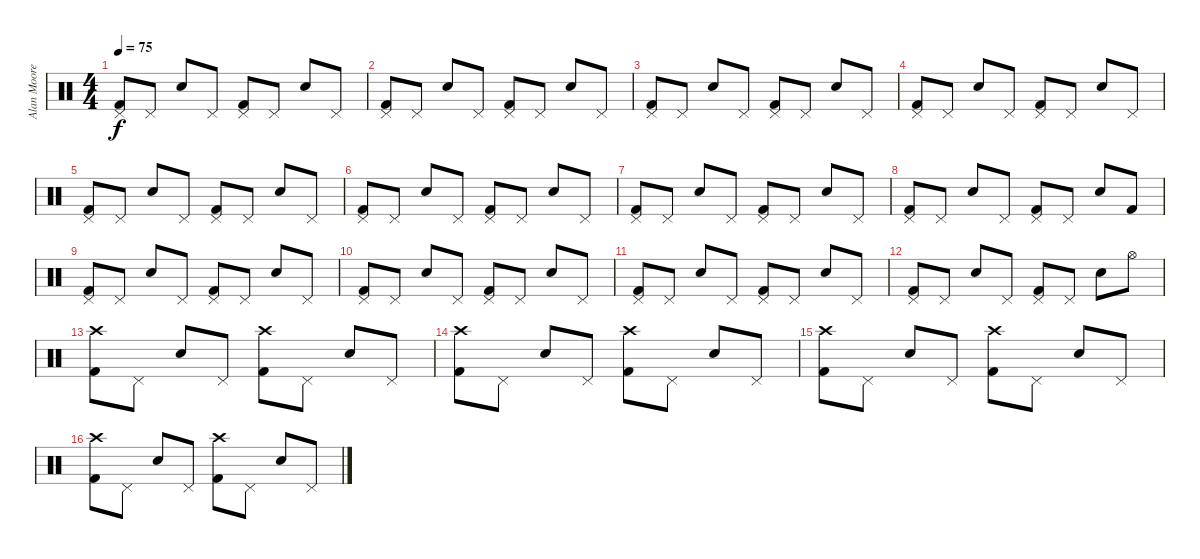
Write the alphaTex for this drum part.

\track ("Alan Moore" "Alan Moore") {instrument percussion}
\staff {score}
\articulation defaults
\ts (4 4)
\tempo 75
\clef neutral
\ks c
("Pedal Hi-Hat (hit)" "Kick (hit) 2").8{dy f} "Pedal Hi-Hat (hit)".8 "Snare (hit) 2".8 "Pedal Hi-Hat (hit)".8 ("Pedal Hi-Hat (hit)" "Kick (hit) 2").8 "Pedal Hi-Hat (hit)".8 "Snare (hit) 2".8 "Pedal Hi-Hat (hit)".8 |
("Pedal Hi-Hat (hit)" "Kick (hit) 2").8 "Pedal Hi-Hat (hit)".8 "Snare (hit) 2".8 "Pedal Hi-Hat (hit)".8 ("Pedal Hi-Hat (hit)" "Kick (hit) 2").8 "Pedal Hi-Hat (hit)".8 "Snare (hit) 2".8 "Pedal Hi-Hat (hit)".8 |
("Pedal Hi-Hat (hit)" "Kick (hit) 2").8 "Pedal Hi-Hat (hit)".8 "Snare (hit) 2".8 "Pedal Hi-Hat (hit)".8 ("Pedal Hi-Hat (hit)" "Kick (hit) 2").8 "Pedal Hi-Hat (hit)".8 "Snare (hit) 2".8 "Pedal Hi-Hat (hit)".8 |
("Pedal Hi-Hat (hit)" "Kick (hit) 2").8 "Pedal Hi-Hat (hit)".8 "Snare (hit) 2".8 "Pedal Hi-Hat (hit)".8 ("Pedal Hi-Hat (hit)" "Kick (hit) 2").8 "Pedal Hi-Hat (hit)".8 "Snare (hit) 2".8 "Pedal Hi-Hat (hit)".8 |
("Pedal Hi-Hat (hit)" "Kick (hit) 2").8 "Pedal Hi-Hat (hit)".8 "Snare (hit) 2".8 "Pedal Hi-Hat (hit)".8 ("Pedal Hi-Hat (hit)" "Kick (hit) 2").8 "Pedal Hi-Hat (hit)".8 "Snare (hit) 2".8 "Pedal Hi-Hat (hit)".8 |
("Pedal Hi-Hat (hit)" "Kick (hit) 2").8 "Pedal Hi-Hat (hit)".8 "Snare (hit) 2".8 "Pedal Hi-Hat (hit)".8 ("Pedal Hi-Hat (hit)" "Kick (hit) 2").8 "Pedal Hi-Hat (hit)".8 "Snare (hit) 2".8 "Pedal Hi-Hat (hit)".8 |
("Pedal Hi-Hat (hit)" "Kick (hit) 2").8 "Pedal Hi-Hat (hit)".8 "Snare (hit) 2".8 "Pedal Hi-Hat (hit)".8 ("Pedal Hi-Hat (hit)" "Kick (hit) 2").8 "Pedal Hi-Hat (hit)".8 "Snare (hit) 2".8 "Pedal Hi-Hat (hit)".8 |
("Pedal Hi-Hat (hit)" "Kick (hit) 2").8 "Pedal Hi-Hat (hit)".8 "Snare (hit) 2".8 "Pedal Hi-Hat (hit)".8 ("Pedal Hi-Hat (hit)" "Kick (hit) 2").8 "Pedal Hi-Hat (hit)".8 "Snare (hit) 2".8 "Kick (hit) 2".8 |
("Pedal Hi-Hat (hit)" "Kick (hit) 2").8 "Pedal Hi-Hat (hit)".8 "Snare (hit) 2".8 "Pedal Hi-Hat (hit)".8 ("Pedal Hi-Hat (hit)" "Kick (hit) 2").8 "Pedal Hi-Hat (hit)".8 "Snare (hit) 2".8 "Pedal Hi-Hat (hit)".8 |
("Pedal Hi-Hat (hit)" "Kick (hit) 2").8 "Pedal Hi-Hat (hit)".8 "Snare (hit) 2".8 "Pedal Hi-Hat (hit)".8 ("Pedal Hi-Hat (hit)" "Kick (hit) 2").8 "Pedal Hi-Hat (hit)".8 "Snare (hit) 2".8 "Pedal Hi-Hat (hit)".8 |
("Pedal Hi-Hat (hit)" "Kick (hit) 2").8 "Pedal Hi-Hat (hit)".8 "Snare (hit) 2".8 "Pedal Hi-Hat (hit)".8 ("Pedal Hi-Hat (hit)" "Kick (hit) 2").8 "Pedal Hi-Hat (hit)".8 "Snare (hit) 2".8 "Pedal Hi-Hat (hit)".8 |
("Pedal Hi-Hat (hit)" "Kick (hit) 2").8 "Pedal Hi-Hat (hit)".8 "Snare (hit) 2".8 "Pedal Hi-Hat (hit)".8 ("Pedal Hi-Hat (hit)" "Kick (hit) 2").8 "Pedal Hi-Hat (hit)".8 "Snare (hit) 2".8 "Hi-Hat (open)".8 |
("Crash high (hit)" "Kick (hit) 2").8 "Pedal Hi-Hat (hit)".8 "Snare (hit) 2".8 "Pedal Hi-Hat (hit)".8 ("Crash high (hit)" "Kick (hit) 2").8 "Pedal Hi-Hat (hit)".8 "Snare (hit) 2".8 "Pedal Hi-Hat (hit)".8 |
("Crash high (hit)" "Kick (hit) 2").8 "Pedal Hi-Hat (hit)".8 "Snare (hit) 2".8 "Pedal Hi-Hat (hit)".8 ("Crash high (hit)" "Kick (hit) 2").8 "Pedal Hi-Hat (hit)".8 "Snare (hit) 2".8 "Pedal Hi-Hat (hit)".8 |
("Crash high (hit)" "Kick (hit) 2").8 "Pedal Hi-Hat (hit)".8 "Snare (hit) 2".8 "Pedal Hi-Hat (hit)".8 ("Crash high (hit)" "Kick (hit) 2").8 "Pedal Hi-Hat (hit)".8 "Snare (hit) 2".8 "Pedal Hi-Hat (hit)".8 |
("Crash high (hit)" "Kick (hit) 2").8 "Pedal Hi-Hat (hit)".8 "Snare (hit) 2".8 "Pedal Hi-Hat (hit)".8 ("Crash high (hit)" "Kick (hit) 2").8 "Pedal Hi-Hat (hit)".8 "Snare (hit) 2".8 "Pedal Hi-Hat (hit)".8
